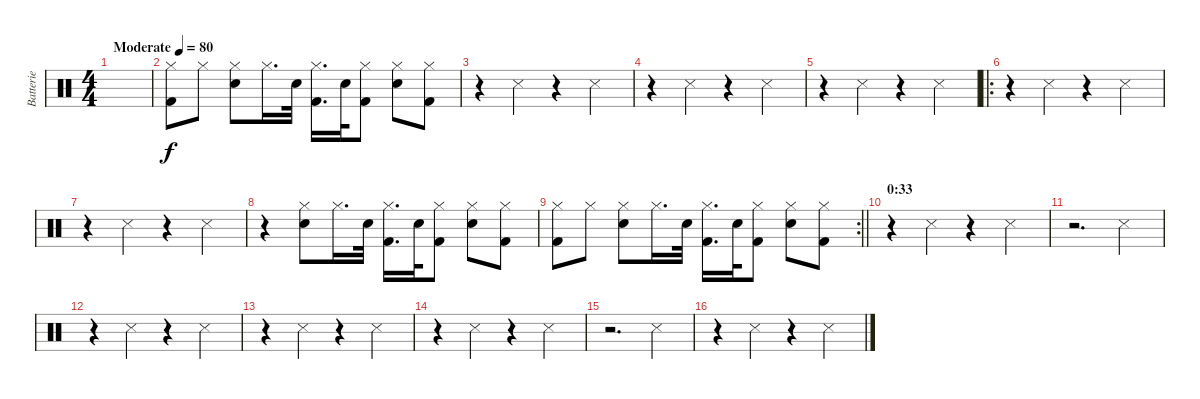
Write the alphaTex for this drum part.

\track ("Batterie" "Batterie") {instrument percussion bank 177}
\staff {score}
\articulation defaults
\ts (4 4)
\tempo (80 "Moderate")
\clef neutral
\ks c
|
("Hi-Hat (closed)" "Kick (hit) 2").8 "Hi-Hat (closed)".8 ("Hi-Hat (closed)" "Electric Snare (hit)").8 "Hi-Hat (closed)".16{d} "Electric Snare (hit)".32 ("Hi-Hat (closed)" "Kick (hit) 2").16{d} "Electric Snare (hit)".32 ("Hi-Hat (closed)" "Kick (hit) 2").8 ("Hi-Hat (closed)" "Electric Snare (hit)").8 ("Hi-Hat (closed)" "Kick (hit) 2").8 |
r.4 "Snare (side stick) 3".4 r.4 "Snare (side stick) 3".4 |
r.4 "Snare (side stick) 3".4 r.4 "Snare (side stick) 3".4 |
r.4 "Snare (side stick) 3".4 r.4 "Snare (side stick) 3".4 |
\ro
r.4 "Snare (side stick) 3".4 r.4 "Snare (side stick) 3".4 |
r.4 "Snare (side stick) 3".4 r.4 "Snare (side stick) 3".4 |
r.4 ("Hi-Hat (closed)" "Electric Snare (hit)").8 "Hi-Hat (closed)".16{d} "Electric Snare (hit)".32 ("Hi-Hat (closed)" "Kick (hit) 2").16{d} "Electric Snare (hit)".32 ("Hi-Hat (closed)" "Kick (hit) 2").8 ("Hi-Hat (closed)" "Electric Snare (hit)").8 ("Hi-Hat (closed)" "Kick (hit) 2").8 |
\rc 2
\barLineRight lightlight
("Hi-Hat (closed)" "Kick (hit) 2").8 "Hi-Hat (closed)".8 ("Hi-Hat (closed)" "Electric Snare (hit)").8 "Hi-Hat (closed)".16{d} "Electric Snare (hit)".32 ("Hi-Hat (closed)" "Kick (hit) 2").16{d} "Electric Snare (hit)".32 ("Hi-Hat (closed)" "Kick (hit) 2").8 ("Hi-Hat (closed)" "Electric Snare (hit)").8 ("Hi-Hat (closed)" "Kick (hit) 2").8 |
\section ("" "0:33")
r.4 "Snare (side stick) 3".4 r.4 "Snare (side stick) 3".4 |
r.2{d} "Snare (side stick) 3".4 |
r.4 "Snare (side stick) 3".4 r.4 "Snare (side stick) 3".4 |
r.4 "Snare (side stick) 3".4 r.4 "Snare (side stick) 3".4 |
r.4 "Snare (side stick) 3".4 r.4 "Snare (side stick) 3".4 |
r.2{d} "Snare (side stick) 3".4 |
r.4 "Snare (side stick) 3".4 r.4 "Snare (side stick) 3".4
